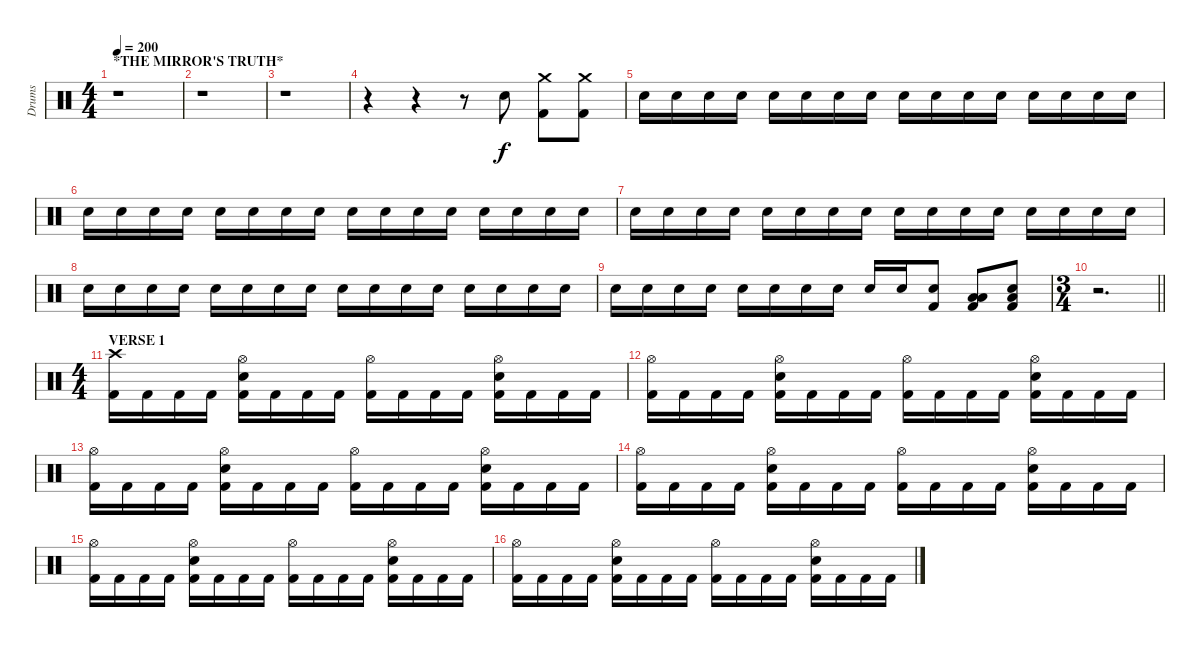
\track ("Drums" "Drums") {instrument percussion}
\staff {score}
\articulation defaults
\ts (4 4)
\section ("" "*THE MIRROR'S TRUTH*")
\tempo 200
\tempo 180
\tempo 200
\clef neutral
\ks c
r.1{dy f} |
r.1 |
r.1 |
r.4 r.4 r.8 "Electric Snare (hit)".8 ("Crash medium (hit)" "Kick (hit) 2").8 ("Crash medium (hit)" "Kick (hit) 2").8 |
"Electric Snare (hit)".16{volume 4} "Electric Snare (hit)".16{volume 16} "Electric Snare (hit)".16 "Electric Snare (hit)".16 "Electric Snare (hit)".16 "Electric Snare (hit)".16 "Electric Snare (hit)".16 "Electric Snare (hit)".16 "Electric Snare (hit)".16 "Electric Snare (hit)".16 "Electric Snare (hit)".16 "Electric Snare (hit)".16 "Electric Snare (hit)".16 "Electric Snare (hit)".16 "Electric Snare (hit)".16 "Electric Snare (hit)".16 |
"Electric Snare (hit)".16 "Electric Snare (hit)".16 "Electric Snare (hit)".16 "Electric Snare (hit)".16 "Electric Snare (hit)".16 "Electric Snare (hit)".16 "Electric Snare (hit)".16 "Electric Snare (hit)".16 "Electric Snare (hit)".16 "Electric Snare (hit)".16 "Electric Snare (hit)".16 "Electric Snare (hit)".16 "Electric Snare (hit)".16 "Electric Snare (hit)".16 "Electric Snare (hit)".16 "Electric Snare (hit)".16 |
"Electric Snare (hit)".16 "Electric Snare (hit)".16 "Electric Snare (hit)".16 "Electric Snare (hit)".16 "Electric Snare (hit)".16 "Electric Snare (hit)".16 "Electric Snare (hit)".16 "Electric Snare (hit)".16 "Electric Snare (hit)".16 "Electric Snare (hit)".16 "Electric Snare (hit)".16 "Electric Snare (hit)".16 "Electric Snare (hit)".16 "Electric Snare (hit)".16 "Electric Snare (hit)".16 "Electric Snare (hit)".16 |
"Electric Snare (hit)".16 "Electric Snare (hit)".16 "Electric Snare (hit)".16 "Electric Snare (hit)".16 "Electric Snare (hit)".16 "Electric Snare (hit)".16 "Electric Snare (hit)".16 "Electric Snare (hit)".16 "Electric Snare (hit)".16 "Electric Snare (hit)".16 "Electric Snare (hit)".16 "Electric Snare (hit)".16 "Electric Snare (hit)".16 "Electric Snare (hit)".16 "Electric Snare (hit)".16 "Electric Snare (hit)".16 |
"Electric Snare (hit)".16 "Electric Snare (hit)".16 "Electric Snare (hit)".16 "Electric Snare (hit)".16 "Electric Snare (hit)".16 "Electric Snare (hit)".16 "Electric Snare (hit)".16 "Electric Snare (hit)".16 "Electric Snare (hit)".16 "Electric Snare (hit)".16 ("Electric Snare (hit)" "Kick (hit) 2").8 ("Low Tom (hit)" "Low Floor Tom (hit)" "Kick (hit) 2").8 ("Electric Snare (hit)" "Low Floor Tom (hit)" "Kick (hit) 2").8 |
\ts (3 4)
\barLineRight lightlight
r.2{d} |
\ts (4 4)
\section ("" "VERSE 1")
("Crash high (hit)" "Kick (hit) 2").16 "Kick (hit) 2".16 "Kick (hit) 2".16 "Kick (hit) 2".16 ("Hi-Hat (open)" "Electric Snare (hit)" "Kick (hit) 2").16 "Kick (hit) 2".16 "Kick (hit) 2".16 "Kick (hit) 2".16 ("Hi-Hat (open)" "Kick (hit) 2").16 "Kick (hit) 2".16 "Kick (hit) 2".16 "Kick (hit) 2".16 ("Hi-Hat (open)" "Electric Snare (hit)" "Kick (hit) 2").16 "Kick (hit) 2".16 "Kick (hit) 2".16 "Kick (hit) 2".16 |
("Hi-Hat (open)" "Kick (hit) 2").16 "Kick (hit) 2".16 "Kick (hit) 2".16 "Kick (hit) 2".16 ("Hi-Hat (open)" "Electric Snare (hit)" "Kick (hit) 2").16 "Kick (hit) 2".16 "Kick (hit) 2".16 "Kick (hit) 2".16 ("Hi-Hat (open)" "Kick (hit) 2").16 "Kick (hit) 2".16 "Kick (hit) 2".16 "Kick (hit) 2".16 ("Hi-Hat (open)" "Electric Snare (hit)" "Kick (hit) 2").16 "Kick (hit) 2".16 "Kick (hit) 2".16 "Kick (hit) 2".16 |
("Hi-Hat (open)" "Kick (hit) 2").16 "Kick (hit) 2".16 "Kick (hit) 2".16 "Kick (hit) 2".16 ("Hi-Hat (open)" "Electric Snare (hit)" "Kick (hit) 2").16 "Kick (hit) 2".16 "Kick (hit) 2".16 "Kick (hit) 2".16 ("Hi-Hat (open)" "Kick (hit) 2").16 "Kick (hit) 2".16 "Kick (hit) 2".16 "Kick (hit) 2".16 ("Hi-Hat (open)" "Electric Snare (hit)" "Kick (hit) 2").16 "Kick (hit) 2".16 "Kick (hit) 2".16 "Kick (hit) 2".16 |
("Hi-Hat (open)" "Kick (hit) 2").16 "Kick (hit) 2".16 "Kick (hit) 2".16 "Kick (hit) 2".16 ("Hi-Hat (open)" "Electric Snare (hit)" "Kick (hit) 2").16 "Kick (hit) 2".16 "Kick (hit) 2".16 "Kick (hit) 2".16 ("Hi-Hat (open)" "Kick (hit) 2").16 "Kick (hit) 2".16 "Kick (hit) 2".16 "Kick (hit) 2".16 ("Hi-Hat (open)" "Electric Snare (hit)" "Kick (hit) 2").16 "Kick (hit) 2".16 "Kick (hit) 2".16 "Kick (hit) 2".16 |
("Hi-Hat (open)" "Kick (hit) 2").16 "Kick (hit) 2".16 "Kick (hit) 2".16 "Kick (hit) 2".16 ("Hi-Hat (open)" "Electric Snare (hit)" "Kick (hit) 2").16 "Kick (hit) 2".16 "Kick (hit) 2".16 "Kick (hit) 2".16 ("Hi-Hat (open)" "Kick (hit) 2").16 "Kick (hit) 2".16 "Kick (hit) 2".16 "Kick (hit) 2".16 ("Hi-Hat (open)" "Electric Snare (hit)" "Kick (hit) 2").16 "Kick (hit) 2".16 "Kick (hit) 2".16 "Kick (hit) 2".16 |
("Hi-Hat (open)" "Kick (hit) 2").16 "Kick (hit) 2".16 "Kick (hit) 2".16 "Kick (hit) 2".16 ("Hi-Hat (open)" "Electric Snare (hit)" "Kick (hit) 2").16 "Kick (hit) 2".16 "Kick (hit) 2".16 "Kick (hit) 2".16 ("Hi-Hat (open)" "Kick (hit) 2").16 "Kick (hit) 2".16 "Kick (hit) 2".16 "Kick (hit) 2".16 ("Hi-Hat (open)" "Electric Snare (hit)" "Kick (hit) 2").16 "Kick (hit) 2".16 "Kick (hit) 2".16 "Kick (hit) 2".16
